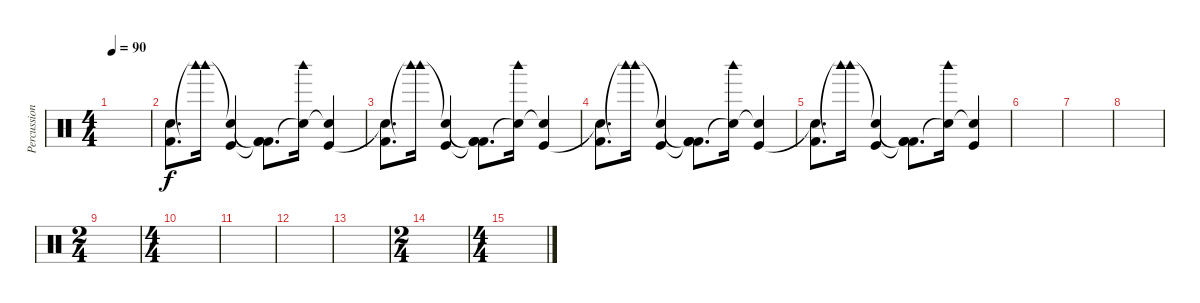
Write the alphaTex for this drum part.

\track ("Percussion" "Percussion") {instrument percussion}
\staff {score}
\articulation defaults
\ts (4 4)
\tempo 90
\clef neutral
\ks c
|
("Kick (hit) 2" "Snare (hit)").8{d} ("Woodblock high (hit)"{t} "Woodblock high (hit)").16 ("Snare (hit)"{t} "Kick (hit)").4 ("Kick (hit) 2"{t} "Kick (hit) 2"{t} "Kick (hit) 2").8{d} ("Snare (hit)"{t} "Woodblock high (hit)").16 ("Snare (hit)"{t} "Kick (hit)").4 |
("Kick (hit) 2" "Snare (hit)"{t}).8{d} ("Woodblock high (hit)"{t} "Woodblock high (hit)").16 ("Snare (hit)"{t} "Kick (hit)").4 ("Kick (hit) 2"{t} "Kick (hit) 2"{t} "Kick (hit) 2").8{d} ("Snare (hit)"{t} "Woodblock high (hit)").16 ("Snare (hit)"{t} "Kick (hit)").4 |
("Kick (hit) 2" "Snare (hit)"{t}).8{d} ("Woodblock high (hit)"{t} "Woodblock high (hit)").16 ("Snare (hit)"{t} "Kick (hit)").4 ("Kick (hit) 2"{t} "Kick (hit) 2"{t} "Kick (hit) 2").8{d} ("Snare (hit)"{t} "Woodblock high (hit)").16 ("Snare (hit)"{t} "Kick (hit)").4 |
("Kick (hit) 2" "Snare (hit)"{t}).8{d} ("Woodblock high (hit)"{t} "Woodblock high (hit)").16 ("Snare (hit)"{t} "Kick (hit)").4 ("Kick (hit) 2"{t} "Kick (hit) 2"{t} "Kick (hit) 2").8{d} ("Snare (hit)"{t} "Woodblock high (hit)").16 ("Snare (hit)"{t} "Kick (hit)").4 |
|
|
|
\ts (2 4)
|
\ts (4 4)
|
|
|
|
\ts (2 4)
|
\ts (4 4)
